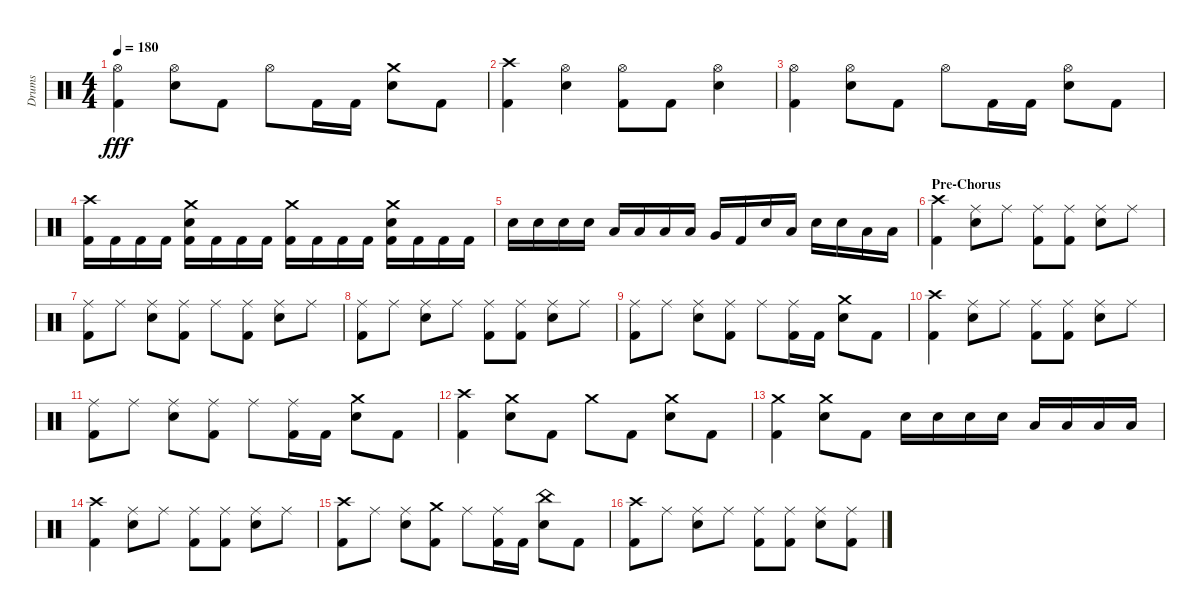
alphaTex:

\track ("Drums" "Drums") {instrument percussion}
\staff {score}
\articulation defaults
\ts (4 4)
\tempo 180
\clef neutral
\ks aminor
("Hi-Hat (open)" "Kick (hit) 2").4{dy fff} ("Snare (hit) 2" "Hi-Hat (open)").8 "Kick (hit) 2".8 "Hi-Hat (open)".8 "Kick (hit) 2".16 "Kick (hit) 2".16 ("Snare (hit) 2" "Crash medium (hit)").8 "Kick (hit) 2".8 |
("Kick (hit) 2" "Crash high (hit)").4 ("Snare (hit) 2" "Hi-Hat (open)").4 ("Kick (hit) 2" "Hi-Hat (open)").8 "Kick (hit) 2".8 ("Snare (hit) 2" "Hi-Hat (open)").4 |
("Hi-Hat (open)" "Kick (hit) 2").4 ("Snare (hit) 2" "Hi-Hat (open)").8 "Kick (hit) 2".8 "Hi-Hat (open)".8 "Kick (hit) 2".16 "Kick (hit) 2".16 ("Snare (hit) 2" "Hi-Hat (open)").8 "Kick (hit) 2".8 |
("Kick (hit) 2" "Crash high (hit)").16 "Kick (hit) 2".16 "Kick (hit) 2".16 "Kick (hit) 2".16 ("Kick (hit) 2" "Snare (hit) 2" "Crash medium (hit)").16 "Kick (hit) 2".16 "Kick (hit) 2".16 "Kick (hit) 2".16 ("Kick (hit) 2" "Crash medium (hit)").16 "Kick (hit) 2".16 "Kick (hit) 2".16 "Kick (hit) 2".16 ("Snare (hit) 2" "Crash medium (hit)" "Kick (hit) 2").16 "Kick (hit) 2".16 "Kick (hit) 2".16 "Kick (hit) 2".16 |
"Snare (hit) 2".16 "Snare (hit) 2".16 "Snare (hit) 2".16 "Snare (hit) 2".16 "Low Tom (hit)".16 "Low Tom (hit)".16 "Low Tom (hit)".16 "Low Tom (hit)".16 "Very Low Tom (hit)".16 "Kick (hit) 2".16 "Snare (hit) 2".16 "Low Floor Tom (hit)".16 "Snare (hit) 2".16 "Snare (hit) 2".16 "Low Floor Tom (hit)".16 "Low Floor Tom (hit)".16 |
\section ("" "Pre-Chorus")
("Kick (hit) 2" "Crash high (hit)").4 ("Snare (hit) 2" "Ride (middle)").8 "Ride (middle)".8 ("Ride (middle)" "Kick (hit) 2").8 ("Ride (middle)" "Kick (hit) 2").8 ("Snare (hit) 2" "Ride (middle)").8 "Ride (middle)".8 |
("Ride (middle)" "Kick (hit) 2").8 "Ride (middle)".8 ("Ride (middle)" "Snare (hit) 2").8 ("Kick (hit) 2" "Ride (middle)").8 "Ride (middle)".8 ("Kick (hit) 2" "Ride (middle)").8 ("Snare (hit) 2" "Ride (middle)").8 "Ride (middle)".8 |
("Ride (middle)" "Kick (hit) 2").8 "Ride (middle)".8 ("Ride (middle)" "Snare (hit) 2").8 "Ride (middle)".8 ("Ride (middle)" "Kick (hit) 2").8 ("Kick (hit) 2" "Ride (middle)").8 ("Ride (middle)" "Snare (hit) 2").8 "Ride (middle)".8 |
("Kick (hit) 2" "Ride (middle)").8 "Ride (middle)".8 ("Snare (hit) 2" "Ride (middle)").8 ("Kick (hit) 2" "Ride (middle)").8 "Ride (middle)".8 ("Kick (hit) 2" "Ride (middle)").16 "Kick (hit) 2".16 ("Crash medium (hit)" "Snare (hit) 2").8 "Kick (hit) 2".8 |
("Crash high (hit)" "Kick (hit) 2").4 ("Ride (middle)" "Snare (hit) 2").8 "Ride (middle)".8 ("Kick (hit) 2" "Ride (middle)").8 ("Ride (middle)" "Kick (hit) 2").8 ("Snare (hit) 2" "Ride (middle)").8 "Ride (middle)".8 |
("Ride (middle)" "Kick (hit) 2").8 "Ride (middle)".8 ("Snare (hit) 2" "Ride (middle)").8 ("Kick (hit) 2" "Ride (middle)").8 "Ride (middle)".8 ("Ride (middle)" "Kick (hit) 2").16 "Kick (hit) 2".16 ("Snare (hit) 2" "Crash medium (hit)").8 "Kick (hit) 2".8 |
("Kick (hit) 2" "Crash high (hit)").4 ("Snare (hit) 2" "Crash medium (hit)").8 "Kick (hit) 2".8 "Crash medium (hit)".8 "Kick (hit) 2".8 ("Snare (hit) 2" "Crash medium (hit)").8 "Kick (hit) 2".8 |
("Kick (hit) 2" "Crash medium (hit)").4 ("Snare (hit) 2" "Crash medium (hit)").8 "Kick (hit) 2".8 "Snare (hit) 2".16 "Snare (hit) 2".16 "Snare (hit) 2".16 "Snare (hit) 2".16 "Low Floor Tom (hit)".16 "Low Floor Tom (hit)".16 "Low Floor Tom (hit)".16 "Low Floor Tom (hit)".16 |
("Kick (hit) 2" "Crash high (hit)").4 ("Snare (hit) 2" "Ride (middle)").8 "Ride (middle)".8 ("Kick (hit) 2" "Ride (middle)").8 ("Ride (middle)" "Kick (hit) 2").8 ("Ride (middle)" "Snare (hit) 2").8 "Ride (middle)".8 |
("Crash high (hit)" "Kick (hit) 2").8 "Ride (middle)".8 ("Snare (hit) 2" "Ride (middle)").8 ("Kick (hit) 2" "Crash medium (hit)").8 "Ride (middle)".8 ("Ride (middle)" "Kick (hit) 2").16 "Kick (hit) 2".16 ("China (hit)" "Snare (hit) 2").8 "Kick (hit) 2".8 |
("Kick (hit) 2" "Crash high (hit)").8 "Ride (middle)".8 ("Snare (hit) 2" "Ride (middle)").8 "Ride (middle)".8 ("Ride (middle)" "Kick (hit) 2").8 ("Kick (hit) 2" "Ride (middle)").8 ("Snare (hit) 2" "Ride (middle)").8 ("Kick (hit) 2" "Ride (middle)").8
